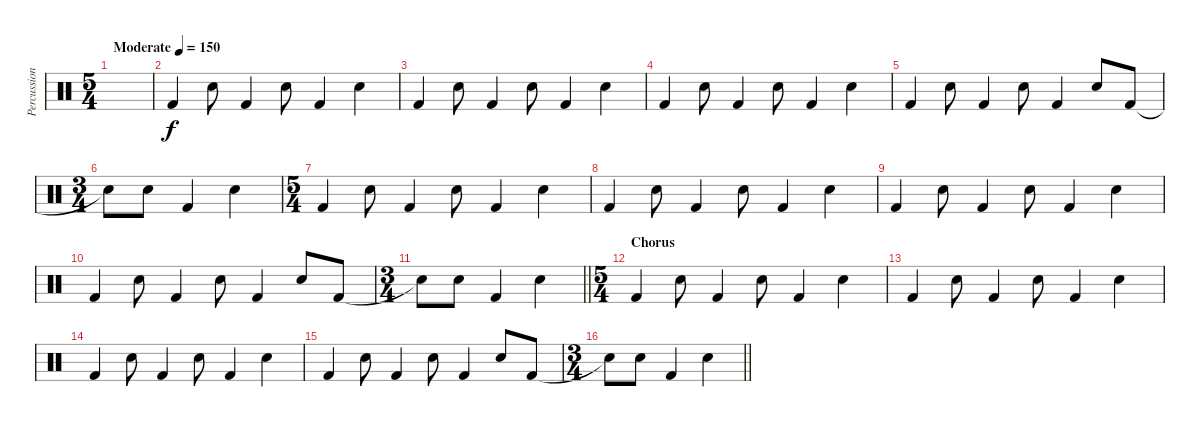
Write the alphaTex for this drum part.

\track ("Percussion" "Percussion") {instrument percussion}
\staff {score}
\articulation defaults
\ts (5 4)
\tempo (150 "Moderate")
\clef neutral
\ks c
|
"Kick (hit) 2".4 "Snare (hit) 2".8 "Kick (hit) 2".4 "Snare (hit) 2".8 "Kick (hit) 2".4 "Snare (hit) 2".4 |
"Kick (hit) 2".4 "Snare (hit) 2".8 "Kick (hit) 2".4 "Snare (hit) 2".8 "Kick (hit) 2".4 "Snare (hit) 2".4 |
"Kick (hit) 2".4 "Snare (hit) 2".8 "Kick (hit) 2".4 "Snare (hit) 2".8 "Kick (hit) 2".4 "Snare (hit) 2".4 |
"Kick (hit) 2".4 "Snare (hit) 2".8 "Kick (hit) 2".4 "Snare (hit) 2".8 "Kick (hit) 2".4 "Snare (hit) 2".8 "Kick (hit) 2".8 |
\ts (3 4)
"Snare (hit)"{t}.8 "Snare (hit) 2".8 "Kick (hit) 2".4 "Snare (hit) 2".4 |
\ts (5 4)
"Kick (hit) 2".4 "Snare (hit) 2".8 "Kick (hit) 2".4 "Snare (hit) 2".8 "Kick (hit) 2".4 "Snare (hit) 2".4 |
"Kick (hit) 2".4 "Snare (hit) 2".8 "Kick (hit) 2".4 "Snare (hit) 2".8 "Kick (hit) 2".4 "Snare (hit) 2".4 |
"Kick (hit) 2".4 "Snare (hit) 2".8 "Kick (hit) 2".4 "Snare (hit) 2".8 "Kick (hit) 2".4 "Snare (hit) 2".4 |
"Kick (hit) 2".4 "Snare (hit) 2".8 "Kick (hit) 2".4 "Snare (hit) 2".8 "Kick (hit) 2".4 "Snare (hit) 2".8 "Kick (hit) 2".8 |
\ts (3 4)
\barLineRight lightlight "Snare (hit)"{t}.8 "Snare (hit) 2".8 "Kick (hit) 2".4 "Snare (hit) 2".4
|
\ts (5 4)
\section ("" "Chorus")
"Kick (hit) 2".4 "Snare (hit) 2".8 "Kick (hit) 2".4 "Snare (hit) 2".8 "Kick (hit) 2".4 "Snare (hit) 2".4 |
"Kick (hit) 2".4 "Snare (hit) 2".8 "Kick (hit) 2".4 "Snare (hit) 2".8 "Kick (hit) 2".4 "Snare (hit) 2".4 |
"Kick (hit) 2".4 "Snare (hit) 2".8 "Kick (hit) 2".4 "Snare (hit) 2".8 "Kick (hit) 2".4 "Snare (hit) 2".4 |
"Kick (hit) 2".4 "Snare (hit) 2".8 "Kick (hit) 2".4 "Snare (hit) 2".8 "Kick (hit) 2".4 "Snare (hit) 2".8 "Kick (hit) 2".8 |
\ts (3 4)
\barLineRight lightlight "Snare (hit)"{t}.8 "Snare (hit) 2".8 "Kick (hit) 2".4 "Snare (hit) 2".4
